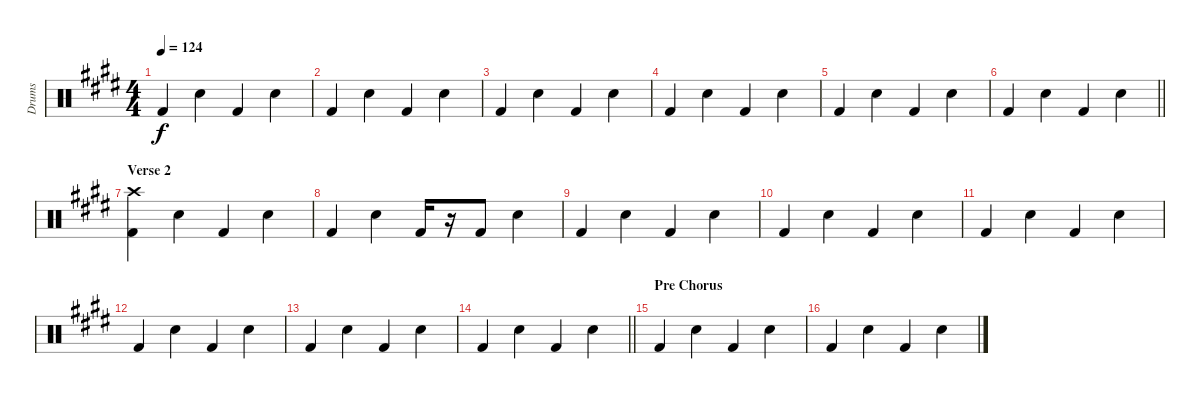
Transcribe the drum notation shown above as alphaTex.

\track ("Drums" "Drums") {instrument percussion}
\staff {score}
\articulation defaults
\ts (4 4)
\tempo 124
\clef neutral
\ks e "Kick (hit) 2".4{dy f} "Snare (hit) 2".4 "Kick (hit) 2".4 "Snare (hit) 2".4
|
"Kick (hit) 2".4 "Snare (hit) 2".4 "Kick (hit) 2".4 "Snare (hit) 2".4 |
"Kick (hit) 2".4 "Snare (hit) 2".4 "Kick (hit) 2".4 "Snare (hit) 2".4 |
"Kick (hit) 2".4 "Snare (hit) 2".4 "Kick (hit) 2".4 "Snare (hit) 2".4 |
"Kick (hit) 2".4 "Snare (hit) 2".4 "Kick (hit) 2".4 "Snare (hit) 2".4 |
\barLineRight lightlight "Kick (hit) 2".4 "Snare (hit) 2".4 "Kick (hit) 2".4 "Snare (hit) 2".4
|
\section ("" "Verse 2")
("Crash high (hit)" "Kick (hit) 2").4 "Snare (hit) 2".4 "Kick (hit) 2".4 "Snare (hit) 2".4 |
"Kick (hit) 2".4 "Snare (hit) 2".4 "Kick (hit) 2".16 r.16 "Kick (hit) 2".8 "Snare (hit) 2".4 |
"Kick (hit) 2".4 "Snare (hit) 2".4 "Kick (hit) 2".4 "Snare (hit) 2".4 |
"Kick (hit) 2".4 "Snare (hit) 2".4 "Kick (hit) 2".4 "Snare (hit) 2".4 |
"Kick (hit) 2".4 "Snare (hit) 2".4 "Kick (hit) 2".4 "Snare (hit) 2".4 |
"Kick (hit) 2".4 "Snare (hit) 2".4 "Kick (hit) 2".4 "Snare (hit) 2".4 |
"Kick (hit) 2".4 "Snare (hit) 2".4 "Kick (hit) 2".4 "Snare (hit) 2".4 |
\barLineRight lightlight "Kick (hit) 2".4 "Snare (hit) 2".4 "Kick (hit) 2".4 "Snare (hit) 2".4
|
\section ("" "Pre Chorus")
"Kick (hit) 2".4 "Snare (hit) 2".4 "Kick (hit) 2".4 "Snare (hit) 2".4 |
"Kick (hit) 2".4 "Snare (hit) 2".4 "Kick (hit) 2".4 "Snare (hit) 2".4
